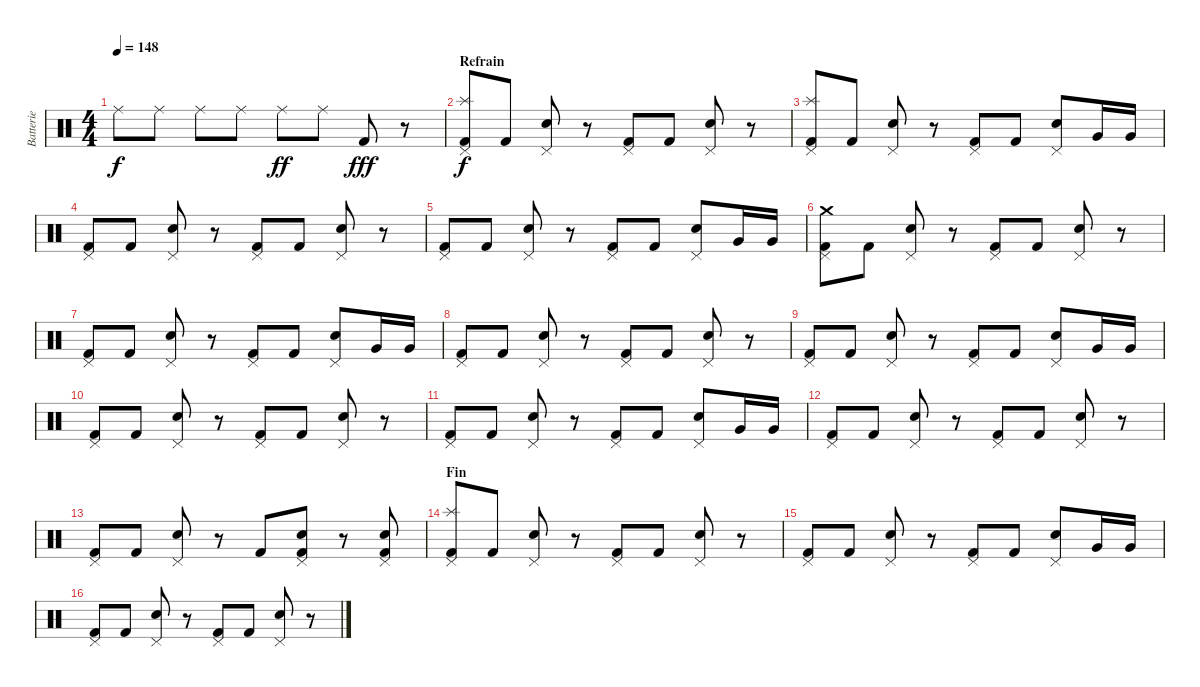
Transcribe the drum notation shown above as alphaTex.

\track ("Batterie" "Batterie") {instrument percussion}
\staff {score}
\articulation defaults
\ts (4 4)
\tempo 148
\clef neutral
\ks c "Ride (middle)".8{dy f volume 8} "Ride (middle)".8 "Ride (middle)".8 "Ride (middle)".8 "Ride (middle)".8{dy ff} "Ride (middle)".8 "Kick (hit) 2".8{dy fff}
r.8 |
\section ("" "Refrain")
("Splash (hit)" "Pedal Hi-Hat (hit)" "Kick (hit) 2").8{dy f volume 15} "Kick (hit) 2".8 ("Pedal Hi-Hat (hit)" "Electric Snare (hit)").8 r.8 ("Pedal Hi-Hat (hit)" "Kick (hit) 2").8 "Kick (hit) 2".8 ("Pedal Hi-Hat (hit)" "Electric Snare (hit)").8 r.8 |
("Splash (hit)" "Pedal Hi-Hat (hit)" "Kick (hit) 2").8 "Kick (hit) 2".8 ("Pedal Hi-Hat (hit)" "Electric Snare (hit)").8 r.8 ("Pedal Hi-Hat (hit)" "Kick (hit) 2").8 "Kick (hit) 2".8 ("Pedal Hi-Hat (hit)" "Electric Snare (hit)").8 "Very Low Tom (hit)".16 "Very Low Tom (hit)".16 |
("Pedal Hi-Hat (hit)" "Kick (hit) 2").8 "Kick (hit) 2".8 ("Pedal Hi-Hat (hit)" "Electric Snare (hit)").8 r.8 ("Pedal Hi-Hat (hit)" "Kick (hit) 2").8 "Kick (hit) 2".8 ("Pedal Hi-Hat (hit)" "Electric Snare (hit)").8 r.8 |
("Pedal Hi-Hat (hit)" "Kick (hit) 2").8 "Kick (hit) 2".8 ("Pedal Hi-Hat (hit)" "Electric Snare (hit)").8 r.8 ("Pedal Hi-Hat (hit)" "Kick (hit) 2").8 "Kick (hit) 2".8 ("Pedal Hi-Hat (hit)" "Electric Snare (hit)").8 "Very Low Tom (hit)".16 "Very Low Tom (hit)".16 |
("Crash medium (hit)" "Pedal Hi-Hat (hit)" "Kick (hit) 2").8 "Kick (hit) 2".8 ("Pedal Hi-Hat (hit)" "Electric Snare (hit)").8 r.8 ("Pedal Hi-Hat (hit)" "Kick (hit) 2").8 "Kick (hit) 2".8 ("Pedal Hi-Hat (hit)" "Electric Snare (hit)").8 r.8 |
("Pedal Hi-Hat (hit)" "Kick (hit) 2").8 "Kick (hit) 2".8 ("Pedal Hi-Hat (hit)" "Electric Snare (hit)").8 r.8 ("Pedal Hi-Hat (hit)" "Kick (hit) 2").8 "Kick (hit) 2".8 ("Pedal Hi-Hat (hit)" "Electric Snare (hit)").8 "Very Low Tom (hit)".16 "Very Low Tom (hit)".16 |
("Pedal Hi-Hat (hit)" "Kick (hit) 2").8 "Kick (hit) 2".8 ("Pedal Hi-Hat (hit)" "Electric Snare (hit)").8 r.8 ("Pedal Hi-Hat (hit)" "Kick (hit) 2").8 "Kick (hit) 2".8 ("Pedal Hi-Hat (hit)" "Electric Snare (hit)").8 r.8 |
("Pedal Hi-Hat (hit)" "Kick (hit) 2").8 "Kick (hit) 2".8 ("Pedal Hi-Hat (hit)" "Electric Snare (hit)").8 r.8 ("Pedal Hi-Hat (hit)" "Kick (hit) 2").8 "Kick (hit) 2".8 ("Pedal Hi-Hat (hit)" "Electric Snare (hit)").8 "Very Low Tom (hit)".16 "Very Low Tom (hit)".16 |
("Pedal Hi-Hat (hit)" "Kick (hit) 2").8 "Kick (hit) 2".8 ("Pedal Hi-Hat (hit)" "Electric Snare (hit)").8 r.8 ("Pedal Hi-Hat (hit)" "Kick (hit) 2").8 "Kick (hit) 2".8 ("Pedal Hi-Hat (hit)" "Electric Snare (hit)").8 r.8 |
("Pedal Hi-Hat (hit)" "Kick (hit) 2").8 "Kick (hit) 2".8 ("Pedal Hi-Hat (hit)" "Electric Snare (hit)").8 r.8 ("Pedal Hi-Hat (hit)" "Kick (hit) 2").8 "Kick (hit) 2".8 ("Pedal Hi-Hat (hit)" "Electric Snare (hit)").8 "Very Low Tom (hit)".16 "Very Low Tom (hit)".16 |
("Pedal Hi-Hat (hit)" "Kick (hit) 2").8 "Kick (hit) 2".8 ("Pedal Hi-Hat (hit)" "Electric Snare (hit)").8 r.8 ("Pedal Hi-Hat (hit)" "Kick (hit) 2").8 "Kick (hit) 2".8 ("Pedal Hi-Hat (hit)" "Electric Snare (hit)").8 r.8 |
("Pedal Hi-Hat (hit)" "Kick (hit) 2").8 "Kick (hit) 2".8 ("Pedal Hi-Hat (hit)" "Electric Snare (hit)").8 r.8 "Kick (hit) 2".8 ("Pedal Hi-Hat (hit)" "Electric Snare (hit)" "Kick (hit) 2").8 r.8 ("Pedal Hi-Hat (hit)" "Electric Snare (hit)" "Kick (hit) 2").8 |
\section ("" "Fin")
("Splash (hit)" "Pedal Hi-Hat (hit)" "Kick (hit) 2").8 "Kick (hit) 2".8 ("Pedal Hi-Hat (hit)" "Electric Snare (hit)").8 r.8 ("Pedal Hi-Hat (hit)" "Kick (hit) 2").8 "Kick (hit) 2".8 ("Pedal Hi-Hat (hit)" "Electric Snare (hit)").8 r.8 |
("Pedal Hi-Hat (hit)" "Kick (hit) 2").8 "Kick (hit) 2".8 ("Pedal Hi-Hat (hit)" "Electric Snare (hit)").8 r.8 ("Pedal Hi-Hat (hit)" "Kick (hit) 2").8 "Kick (hit) 2".8 ("Pedal Hi-Hat (hit)" "Electric Snare (hit)").8 "Very Low Tom (hit)".16 "Very Low Tom (hit)".16 |
("Pedal Hi-Hat (hit)" "Kick (hit) 2").8 "Kick (hit) 2".8 ("Pedal Hi-Hat (hit)" "Electric Snare (hit)").8 r.8 ("Pedal Hi-Hat (hit)" "Kick (hit) 2").8 "Kick (hit) 2".8 ("Pedal Hi-Hat (hit)" "Electric Snare (hit)").8 r.8
